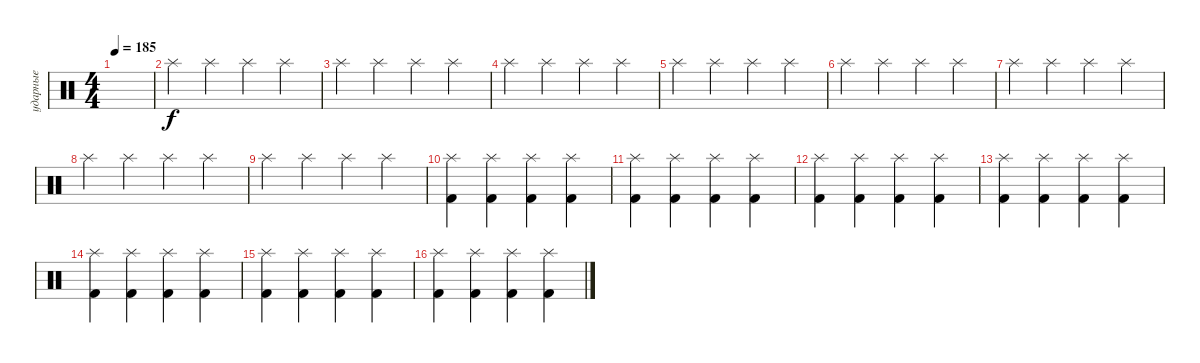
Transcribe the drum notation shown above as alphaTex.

\track ("ударные" "ударные") {instrument percussion}
\staff {score}
\articulation defaults
\ts (4 4)
\tempo 185
\clef neutral
\ks c
|
"Splash (hit)".4 "Splash (hit)".4 "Splash (hit)".4 "Splash (hit)".4 |
"Splash (hit)".4 "Splash (hit)".4 "Splash (hit)".4 "Splash (hit)".4 |
"Splash (hit)".4 "Splash (hit)".4 "Splash (hit)".4 "Splash (hit)".4 |
"Splash (hit)".4 "Splash (hit)".4 "Splash (hit)".4 "Splash (hit)".4 |
"Splash (hit)".4 "Splash (hit)".4 "Splash (hit)".4 "Splash (hit)".4 |
"Splash (hit)".4 "Splash (hit)".4 "Splash (hit)".4 "Splash (hit)".4 |
"Splash (hit)".4 "Splash (hit)".4 "Splash (hit)".4 "Splash (hit)".4 |
"Splash (hit)".4 "Splash (hit)".4 "Splash (hit)".4 "Splash (hit)".4 |
("Splash (hit)" "Kick (hit) 2").4 ("Splash (hit)" "Kick (hit) 2").4 ("Splash (hit)" "Kick (hit) 2").4 ("Splash (hit)" "Kick (hit) 2").4 |
("Splash (hit)" "Kick (hit) 2").4 ("Splash (hit)" "Kick (hit) 2").4 ("Splash (hit)" "Kick (hit) 2").4 ("Splash (hit)" "Kick (hit) 2").4 |
("Splash (hit)" "Kick (hit) 2").4 ("Splash (hit)" "Kick (hit) 2").4 ("Splash (hit)" "Kick (hit) 2").4 ("Splash (hit)" "Kick (hit) 2").4 |
("Splash (hit)" "Kick (hit) 2").4 ("Splash (hit)" "Kick (hit) 2").4 ("Splash (hit)" "Kick (hit) 2").4 ("Splash (hit)" "Kick (hit) 2").4 |
("Splash (hit)" "Kick (hit) 2").4 ("Splash (hit)" "Kick (hit) 2").4 ("Splash (hit)" "Kick (hit) 2").4 ("Splash (hit)" "Kick (hit) 2").4 |
("Splash (hit)" "Kick (hit) 2").4 ("Splash (hit)" "Kick (hit) 2").4 ("Splash (hit)" "Kick (hit) 2").4 ("Splash (hit)" "Kick (hit) 2").4 |
("Splash (hit)" "Kick (hit) 2").4 ("Splash (hit)" "Kick (hit) 2").4 ("Splash (hit)" "Kick (hit) 2").4 ("Splash (hit)" "Kick (hit) 2").4
